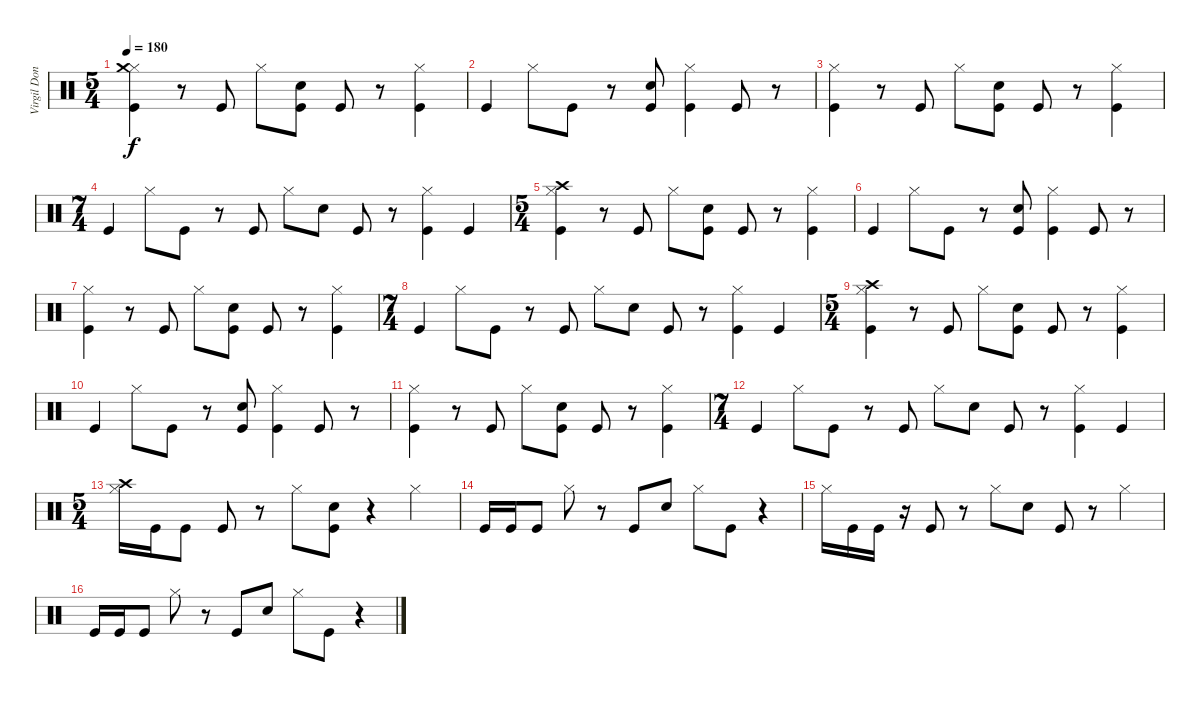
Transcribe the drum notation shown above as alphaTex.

\track ("Virgil Donati" "Virgil Don") {instrument percussion}
\staff {score}
\articulation defaults
\ts (5 4)
\tempo 180
\clef neutral
\ks c
("Hi-Hat (closed)" "Crash medium (hit)" "Kick (hit)").4{dy f} r.8 "Kick (hit)".8 "Hi-Hat (closed)".8 ("Snare (hit) 2" "Kick (hit)").8 "Kick (hit)".8 r.8 ("Hi-Hat (closed)" "Kick (hit)").4 |
"Kick (hit)".4 "Hi-Hat (closed)".8 "Kick (hit)".8 r.8 ("Snare (hit) 2" "Kick (hit)").8 ("Hi-Hat (closed)" "Kick (hit)").4 "Kick (hit)".8 r.8 |
("Hi-Hat (closed)" "Kick (hit)").4 r.8 "Kick (hit)".8 "Hi-Hat (closed)".8 ("Snare (hit) 2" "Kick (hit)").8 "Kick (hit)".8 r.8 ("Hi-Hat (closed)" "Kick (hit)").4 |
\ts (7 4)
"Kick (hit)".4 "Hi-Hat (closed)".8 "Kick (hit)".8 r.8 "Kick (hit)".8 "Hi-Hat (closed)".8 "Snare (hit) 2".8 "Kick (hit)".8 r.8 ("Hi-Hat (closed)" "Kick (hit)").4 "Kick (hit)".4 |
\ts (5 4)
("Hi-Hat (closed)" "Crash high (hit)" "Kick (hit)").4 r.8 "Kick (hit)".8 "Hi-Hat (closed)".8 ("Snare (hit) 2" "Kick (hit)").8 "Kick (hit)".8 r.8 ("Hi-Hat (closed)" "Kick (hit)").4 |
"Kick (hit)".4 "Hi-Hat (closed)".8 "Kick (hit)".8 r.8 ("Snare (hit) 2" "Kick (hit)").8 ("Hi-Hat (closed)" "Kick (hit)").4 "Kick (hit)".8 r.8 |
("Hi-Hat (closed)" "Kick (hit)").4 r.8 "Kick (hit)".8 "Hi-Hat (closed)".8 ("Snare (hit) 2" "Kick (hit)").8 "Kick (hit)".8 r.8 ("Hi-Hat (closed)" "Kick (hit)").4 |
\ts (7 4)
"Kick (hit)".4 "Hi-Hat (closed)".8 "Kick (hit)".8 r.8 "Kick (hit)".8 "Hi-Hat (closed)".8 "Snare (hit) 2".8 "Kick (hit)".8 r.8 ("Hi-Hat (closed)" "Kick (hit)").4 "Kick (hit)".4 |
\ts (5 4)
("Hi-Hat (closed)" "Crash high (hit)" "Kick (hit)").4 r.8 "Kick (hit)".8 "Hi-Hat (closed)".8 ("Snare (hit) 2" "Kick (hit)").8 "Kick (hit)".8 r.8 ("Hi-Hat (closed)" "Kick (hit)").4 |
"Kick (hit)".4 "Hi-Hat (closed)".8 "Kick (hit)".8 r.8 ("Snare (hit) 2" "Kick (hit)").8 ("Hi-Hat (closed)" "Kick (hit)").4 "Kick (hit)".8 r.8 |
("Hi-Hat (closed)" "Kick (hit)").4 r.8 "Kick (hit)".8 "Hi-Hat (closed)".8 ("Snare (hit) 2" "Kick (hit)").8 "Kick (hit)".8 r.8 ("Hi-Hat (closed)" "Kick (hit)").4 |
\ts (7 4)
"Kick (hit)".4 "Hi-Hat (closed)".8 "Kick (hit)".8 r.8 "Kick (hit)".8 "Hi-Hat (closed)".8 "Snare (hit) 2".8 "Kick (hit)".8 r.8 ("Hi-Hat (closed)" "Kick (hit)").4 "Kick (hit)".4 |
\ts (5 4)
("Hi-Hat (closed)" "Crash high (hit)").16 "Kick (hit)".16 "Kick (hit)".8 "Kick (hit)".8 r.8 "Hi-Hat (closed)".8 ("Snare (hit) 2" "Kick (hit)").8 r.4 "Hi-Hat (closed)".4 |
"Kick (hit)".16 "Kick (hit)".16 "Kick (hit)".8 "Hi-Hat (closed)".8 r.8 "Kick (hit)".8 "Snare (hit) 2".8 "Hi-Hat (closed)".8 "Kick (hit)".8 r.4 |
"Hi-Hat (closed)".16 "Kick (hit)".16 "Kick (hit)".16 r.16 "Kick (hit)".8 r.8 "Hi-Hat (closed)".8 "Snare (hit) 2".8 "Kick (hit)".8 r.8 "Hi-Hat (closed)".4 |
"Kick (hit)".16 "Kick (hit)".16 "Kick (hit)".8 "Hi-Hat (closed)".8 r.8 "Kick (hit)".8 "Snare (hit) 2".8 "Hi-Hat (closed)".8 "Kick (hit)".8 r.4
